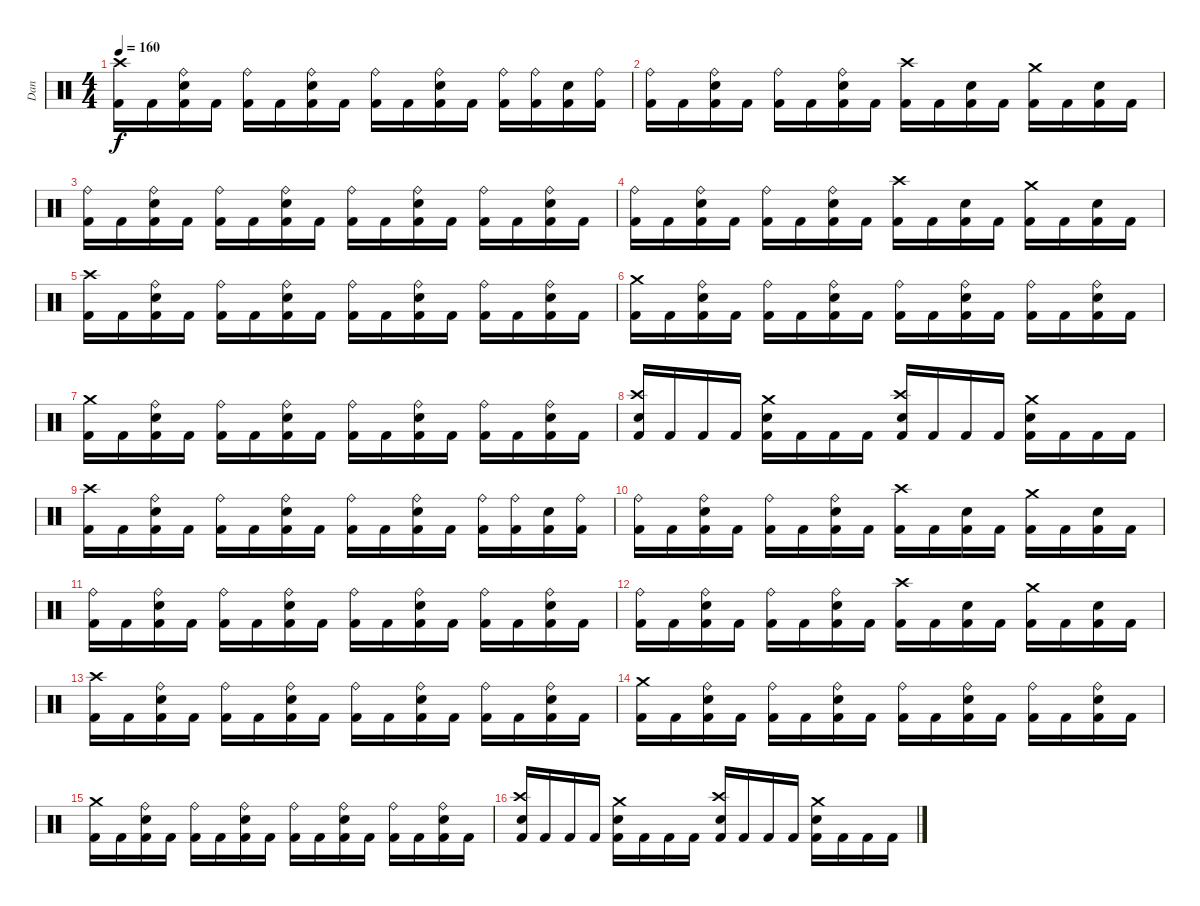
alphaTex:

\track ("Dan " "Dan ") {instrument percussion}
\staff {score}
\articulation defaults
\ts (4 4)
\tempo 160
\clef neutral
\ks c
("Kick (hit) 2" "Crash high (hit)").16{dy f} "Kick (hit) 2".16 ("Metronome (bell)" "Kick (hit) 2" "Ride (bell)").16 "Kick (hit) 2".16 ("Kick (hit) 2" "Ride (bell)").16 "Kick (hit) 2".16 ("Metronome (bell)" "Kick (hit) 2" "Ride (bell)").16 "Kick (hit) 2".16 ("Kick (hit) 2" "Ride (bell)").16 "Kick (hit) 2".16 ("Metronome (bell)" "Kick (hit) 2" "Ride (bell)").16 "Kick (hit) 2".16 ("Kick (hit) 2" "Ride (bell)").16 ("Kick (hit) 2" "Ride (bell)").16 ("Metronome (bell)" "Kick (hit) 2").16 ("Kick (hit) 2" "Ride (bell)").16 |
("Kick (hit) 2" "Ride (bell)").16 "Kick (hit) 2".16 ("Metronome (bell)" "Kick (hit) 2" "Ride (bell)").16 "Kick (hit) 2".16 ("Kick (hit) 2" "Ride (bell)").16 "Kick (hit) 2".16 ("Metronome (bell)" "Kick (hit) 2" "Ride (bell)").16 "Kick (hit) 2".16 ("Kick (hit) 2" "Crash high (hit)").16 "Kick (hit) 2".16 ("Metronome (bell)" "Kick (hit) 2").16 "Kick (hit) 2".16 ("Kick (hit) 2" "Crash medium (hit)").16 "Kick (hit) 2".16 ("Metronome (bell)" "Kick (hit) 2").16 "Kick (hit) 2".16 |
("Kick (hit) 2" "Ride (bell)").16 "Kick (hit) 2".16 ("Metronome (bell)" "Kick (hit) 2" "Ride (bell)").16 "Kick (hit) 2".16 ("Kick (hit) 2" "Ride (bell)").16 "Kick (hit) 2".16 ("Metronome (bell)" "Kick (hit) 2" "Ride (bell)").16 "Kick (hit) 2".16 ("Kick (hit) 2" "Ride (bell)").16 "Kick (hit) 2".16 ("Metronome (bell)" "Kick (hit) 2" "Ride (bell)").16 "Kick (hit) 2".16 ("Kick (hit) 2" "Ride (bell)").16 "Kick (hit) 2".16 ("Metronome (bell)" "Kick (hit) 2" "Ride (bell)").16 "Kick (hit) 2".16 |
("Kick (hit) 2" "Ride (bell)").16 "Kick (hit) 2".16 ("Metronome (bell)" "Kick (hit) 2" "Ride (bell)").16 "Kick (hit) 2".16 ("Kick (hit) 2" "Ride (bell)").16 "Kick (hit) 2".16 ("Metronome (bell)" "Kick (hit) 2" "Ride (bell)").16 "Kick (hit) 2".16 ("Kick (hit) 2" "Crash high (hit)").16 "Kick (hit) 2".16 ("Metronome (bell)" "Kick (hit) 2").16 "Kick (hit) 2".16 ("Kick (hit) 2" "Crash medium (hit)").16 "Kick (hit) 2".16 ("Metronome (bell)" "Kick (hit) 2").16 "Kick (hit) 2".16 |
("Kick (hit) 2" "Crash high (hit)").16 "Kick (hit) 2".16 ("Metronome (bell)" "Kick (hit) 2" "Ride (bell)").16 "Kick (hit) 2".16 ("Kick (hit) 2" "Ride (bell)").16 "Kick (hit) 2".16 ("Metronome (bell)" "Kick (hit) 2" "Ride (bell)").16 "Kick (hit) 2".16 ("Kick (hit) 2" "Ride (bell)").16 "Kick (hit) 2".16 ("Metronome (bell)" "Kick (hit) 2" "Ride (bell)").16 "Kick (hit) 2".16 ("Kick (hit) 2" "Ride (bell)").16 "Kick (hit) 2".16 ("Metronome (bell)" "Kick (hit) 2" "Ride (bell)").16 "Kick (hit) 2".16 |
("Kick (hit) 2" "Crash medium (hit)").16 "Kick (hit) 2".16 ("Metronome (bell)" "Kick (hit) 2" "Ride (bell)").16 "Kick (hit) 2".16 ("Kick (hit) 2" "Ride (bell)").16 "Kick (hit) 2".16 ("Metronome (bell)" "Kick (hit) 2" "Ride (bell)").16 "Kick (hit) 2".16 ("Kick (hit) 2" "Ride (bell)").16 "Kick (hit) 2".16 ("Metronome (bell)" "Kick (hit) 2" "Ride (bell)").16 "Kick (hit) 2".16 ("Kick (hit) 2" "Ride (bell)").16 "Kick (hit) 2".16 ("Metronome (bell)" "Kick (hit) 2" "Ride (bell)").16 "Kick (hit) 2".16 |
("Kick (hit) 2" "Crash medium (hit)").16 "Kick (hit) 2".16 ("Metronome (bell)" "Kick (hit) 2" "Ride (bell)").16 "Kick (hit) 2".16 ("Kick (hit) 2" "Ride (bell)").16 "Kick (hit) 2".16 ("Metronome (bell)" "Kick (hit) 2" "Ride (bell)").16 "Kick (hit) 2".16 ("Kick (hit) 2" "Ride (bell)").16 "Kick (hit) 2".16 ("Metronome (bell)" "Kick (hit) 2" "Ride (bell)").16 "Kick (hit) 2".16 ("Kick (hit) 2" "Ride (bell)").16 "Kick (hit) 2".16 ("Metronome (bell)" "Kick (hit) 2" "Ride (bell)").16 "Kick (hit) 2".16 |
("Metronome (bell)" "Kick (hit) 2" "Crash high (hit)").16 "Kick (hit) 2".16 "Kick (hit) 2".16 "Kick (hit) 2".16 ("Metronome (bell)" "Kick (hit) 2" "Crash medium (hit)").16 "Kick (hit) 2".16 "Kick (hit) 2".16 "Kick (hit) 2".16 ("Metronome (bell)" "Kick (hit) 2" "Crash high (hit)").16 "Kick (hit) 2".16 "Kick (hit) 2".16 "Kick (hit) 2".16 ("Metronome (bell)" "Kick (hit) 2" "Crash medium (hit)").16 "Kick (hit) 2".16 "Kick (hit) 2".16 "Kick (hit) 2".16 |
("Kick (hit) 2" "Crash high (hit)").16 "Kick (hit) 2".16 ("Metronome (bell)" "Kick (hit) 2" "Ride (bell)").16 "Kick (hit) 2".16 ("Kick (hit) 2" "Ride (bell)").16 "Kick (hit) 2".16 ("Metronome (bell)" "Kick (hit) 2" "Ride (bell)").16 "Kick (hit) 2".16 ("Kick (hit) 2" "Ride (bell)").16 "Kick (hit) 2".16 ("Metronome (bell)" "Kick (hit) 2" "Ride (bell)").16 "Kick (hit) 2".16 ("Kick (hit) 2" "Ride (bell)").16 ("Kick (hit) 2" "Ride (bell)").16 ("Metronome (bell)" "Kick (hit) 2").16 ("Kick (hit) 2" "Ride (bell)").16 |
("Kick (hit) 2" "Ride (bell)").16 "Kick (hit) 2".16 ("Metronome (bell)" "Kick (hit) 2" "Ride (bell)").16 "Kick (hit) 2".16 ("Kick (hit) 2" "Ride (bell)").16 "Kick (hit) 2".16 ("Metronome (bell)" "Kick (hit) 2" "Ride (bell)").16 "Kick (hit) 2".16 ("Kick (hit) 2" "Crash high (hit)").16 "Kick (hit) 2".16 ("Metronome (bell)" "Kick (hit) 2").16 "Kick (hit) 2".16 ("Kick (hit) 2" "Crash medium (hit)").16 "Kick (hit) 2".16 ("Metronome (bell)" "Kick (hit) 2").16 "Kick (hit) 2".16 |
("Kick (hit) 2" "Ride (bell)").16 "Kick (hit) 2".16 ("Metronome (bell)" "Kick (hit) 2" "Ride (bell)").16 "Kick (hit) 2".16 ("Kick (hit) 2" "Ride (bell)").16 "Kick (hit) 2".16 ("Metronome (bell)" "Kick (hit) 2" "Ride (bell)").16 "Kick (hit) 2".16 ("Kick (hit) 2" "Ride (bell)").16 "Kick (hit) 2".16 ("Metronome (bell)" "Kick (hit) 2" "Ride (bell)").16 "Kick (hit) 2".16 ("Kick (hit) 2" "Ride (bell)").16 "Kick (hit) 2".16 ("Metronome (bell)" "Kick (hit) 2" "Ride (bell)").16 "Kick (hit) 2".16 |
("Kick (hit) 2" "Ride (bell)").16 "Kick (hit) 2".16 ("Metronome (bell)" "Kick (hit) 2" "Ride (bell)").16 "Kick (hit) 2".16 ("Kick (hit) 2" "Ride (bell)").16 "Kick (hit) 2".16 ("Metronome (bell)" "Kick (hit) 2" "Ride (bell)").16 "Kick (hit) 2".16 ("Kick (hit) 2" "Crash high (hit)").16 "Kick (hit) 2".16 ("Metronome (bell)" "Kick (hit) 2").16 "Kick (hit) 2".16 ("Kick (hit) 2" "Crash medium (hit)").16 "Kick (hit) 2".16 ("Metronome (bell)" "Kick (hit) 2").16 "Kick (hit) 2".16 |
("Kick (hit) 2" "Crash high (hit)").16 "Kick (hit) 2".16 ("Metronome (bell)" "Kick (hit) 2" "Ride (bell)").16 "Kick (hit) 2".16 ("Kick (hit) 2" "Ride (bell)").16 "Kick (hit) 2".16 ("Metronome (bell)" "Kick (hit) 2" "Ride (bell)").16 "Kick (hit) 2".16 ("Kick (hit) 2" "Ride (bell)").16 "Kick (hit) 2".16 ("Metronome (bell)" "Kick (hit) 2" "Ride (bell)").16 "Kick (hit) 2".16 ("Kick (hit) 2" "Ride (bell)").16 "Kick (hit) 2".16 ("Metronome (bell)" "Kick (hit) 2" "Ride (bell)").16 "Kick (hit) 2".16 |
("Kick (hit) 2" "Crash medium (hit)").16 "Kick (hit) 2".16 ("Metronome (bell)" "Kick (hit) 2" "Ride (bell)").16 "Kick (hit) 2".16 ("Kick (hit) 2" "Ride (bell)").16 "Kick (hit) 2".16 ("Metronome (bell)" "Kick (hit) 2" "Ride (bell)").16 "Kick (hit) 2".16 ("Kick (hit) 2" "Ride (bell)").16 "Kick (hit) 2".16 ("Metronome (bell)" "Kick (hit) 2" "Ride (bell)").16 "Kick (hit) 2".16 ("Kick (hit) 2" "Ride (bell)").16 "Kick (hit) 2".16 ("Metronome (bell)" "Kick (hit) 2" "Ride (bell)").16 "Kick (hit) 2".16 |
("Kick (hit) 2" "Crash medium (hit)").16 "Kick (hit) 2".16 ("Metronome (bell)" "Kick (hit) 2" "Ride (bell)").16 "Kick (hit) 2".16 ("Kick (hit) 2" "Ride (bell)").16 "Kick (hit) 2".16 ("Metronome (bell)" "Kick (hit) 2" "Ride (bell)").16 "Kick (hit) 2".16 ("Kick (hit) 2" "Ride (bell)").16 "Kick (hit) 2".16 ("Metronome (bell)" "Kick (hit) 2" "Ride (bell)").16 "Kick (hit) 2".16 ("Kick (hit) 2" "Ride (bell)").16 "Kick (hit) 2".16 ("Metronome (bell)" "Kick (hit) 2" "Ride (bell)").16 "Kick (hit) 2".16 |
("Metronome (bell)" "Kick (hit) 2" "Crash high (hit)").16 "Kick (hit) 2".16 "Kick (hit) 2".16 "Kick (hit) 2".16 ("Metronome (bell)" "Kick (hit) 2" "Crash medium (hit)").16 "Kick (hit) 2".16 "Kick (hit) 2".16 "Kick (hit) 2".16 ("Metronome (bell)" "Kick (hit) 2" "Crash high (hit)").16 "Kick (hit) 2".16 "Kick (hit) 2".16 "Kick (hit) 2".16 ("Metronome (bell)" "Kick (hit) 2" "Crash medium (hit)").16 "Kick (hit) 2".16 "Kick (hit) 2".16 "Kick (hit) 2".16
